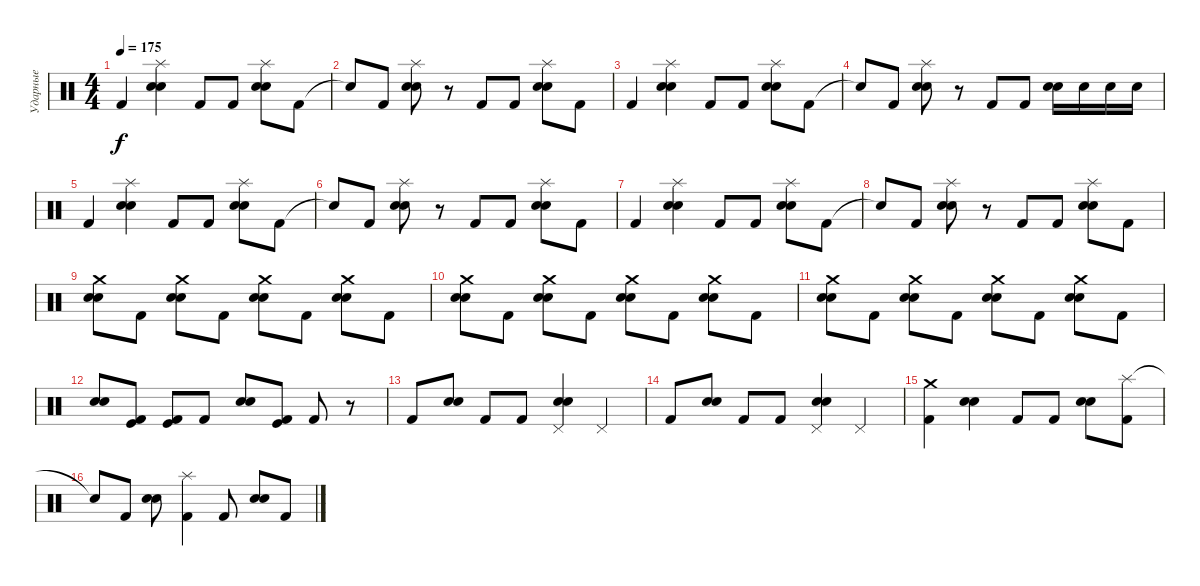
\track ("Ударные" "Ударные") {instrument percussion}
\staff {score}
\articulation defaults
\ts (4 4)
\tempo 175
\clef neutral
\ks c "Kick (hit) 2".4{dy f}
("Splash (hit)" "Electric Snare (hit)" "Snare (hit) 2").4 "Kick (hit) 2".8 "Kick (hit) 2".8 ("Splash (hit)" "Electric Snare (hit)" "Snare (hit) 2").8 "Kick (hit) 2".8 |
"Snare (hit)"{t}.8 "Kick (hit) 2".8 ("Splash (hit)" "Electric Snare (hit)" "Snare (hit) 2").8 r.8 "Kick (hit) 2".8 "Kick (hit) 2".8 ("Splash (hit)" "Electric Snare (hit)" "Snare (hit) 2").8 "Kick (hit) 2".8 |
"Kick (hit) 2".4 ("Splash (hit)" "Electric Snare (hit)" "Snare (hit) 2").4 "Kick (hit) 2".8 "Kick (hit) 2".8 ("Splash (hit)" "Electric Snare (hit)" "Snare (hit) 2").8 "Kick (hit) 2".8 |
"Snare (hit)"{t}.8 "Kick (hit) 2".8 ("Splash (hit)" "Electric Snare (hit)" "Snare (hit) 2").8 r.8 "Kick (hit) 2".8 "Kick (hit) 2".8 ("Electric Snare (hit)" "Snare (hit) 2").16 "Electric Snare (hit)".16 "Electric Snare (hit)".16 "Electric Snare (hit)".16 |
"Kick (hit) 2".4 ("Splash (hit)" "Electric Snare (hit)" "Snare (hit) 2").4 "Kick (hit) 2".8 "Kick (hit) 2".8 ("Splash (hit)" "Electric Snare (hit)" "Snare (hit) 2").8 "Kick (hit) 2".8 |
"Snare (hit)"{t}.8 "Kick (hit) 2".8 ("Splash (hit)" "Electric Snare (hit)" "Snare (hit) 2").8 r.8 "Kick (hit) 2".8 "Kick (hit) 2".8 ("Splash (hit)" "Electric Snare (hit)" "Snare (hit) 2").8 "Kick (hit) 2".8 |
"Kick (hit) 2".4 ("Splash (hit)" "Electric Snare (hit)" "Snare (hit) 2").4 "Kick (hit) 2".8 "Kick (hit) 2".8 ("Splash (hit)" "Electric Snare (hit)" "Snare (hit) 2").8 "Kick (hit) 2".8 |
"Snare (hit)"{t}.8 "Kick (hit) 2".8 ("Splash (hit)" "Electric Snare (hit)" "Snare (hit) 2").8 r.8 "Kick (hit) 2".8 "Kick (hit) 2".8 ("Splash (hit)" "Electric Snare (hit)" "Snare (hit) 2").8 "Kick (hit) 2".8 |
("Crash medium (hit)" "Electric Snare (hit)" "Snare (hit) 2").8 "Kick (hit) 2".8 ("Crash medium (hit)" "Electric Snare (hit)" "Snare (hit) 2").8 "Kick (hit) 2".8 ("Crash medium (hit)" "Electric Snare (hit)" "Snare (hit) 2").8 "Kick (hit) 2".8 ("Crash medium (hit)" "Electric Snare (hit)" "Snare (hit) 2").8 "Kick (hit) 2".8 |
("Crash medium (hit)" "Electric Snare (hit)" "Snare (hit) 2").8 "Kick (hit) 2".8 ("Crash medium (hit)" "Electric Snare (hit)" "Snare (hit) 2").8 "Kick (hit) 2".8 ("Crash medium (hit)" "Electric Snare (hit)" "Snare (hit) 2").8 "Kick (hit) 2".8 ("Crash medium (hit)" "Electric Snare (hit)" "Snare (hit) 2").8 "Kick (hit) 2".8 |
("Crash medium (hit)" "Electric Snare (hit)" "Snare (hit) 2").8 "Kick (hit) 2".8 ("Crash medium (hit)" "Electric Snare (hit)" "Snare (hit) 2").8 "Kick (hit) 2".8 ("Crash medium (hit)" "Electric Snare (hit)" "Snare (hit) 2").8 "Kick (hit) 2".8 ("Crash medium (hit)" "Electric Snare (hit)" "Snare (hit) 2").8 "Kick (hit) 2".8 |
("Electric Snare (hit)" "Snare (hit) 2").8 ("Kick (hit)" "Kick (hit) 2").8 ("Kick (hit)" "Kick (hit) 2").8 "Kick (hit) 2".8 ("Electric Snare (hit)" "Snare (hit) 2").8 ("Kick (hit)" "Kick (hit) 2").8 "Kick (hit) 2".8 r.8 |
"Kick (hit) 2".8 ("Electric Snare (hit)" "Snare (hit) 2").8 "Kick (hit) 2".8 "Kick (hit) 2".8 ("Pedal Hi-Hat (hit)" "Electric Snare (hit)" "Snare (hit) 2").4 "Pedal Hi-Hat (hit)".4 |
"Kick (hit) 2".8 ("Electric Snare (hit)" "Snare (hit) 2").8 "Kick (hit) 2".8 "Kick (hit) 2".8 ("Pedal Hi-Hat (hit)" "Electric Snare (hit)" "Snare (hit) 2").4 "Pedal Hi-Hat (hit)".4 |
("Crash medium (hit)" "Kick (hit) 2").4 ("Electric Snare (hit)" "Snare (hit) 2").4 "Kick (hit) 2".8 "Kick (hit) 2".8 ("Electric Snare (hit)" "Snare (hit) 2").8 ("Splash (hit)" "Kick (hit) 2").8 |
"Snare (hit)"{t}.8 "Kick (hit) 2".8 ("Electric Snare (hit)" "Snare (hit) 2").8 ("Splash (hit)" "Kick (hit) 2").4 "Kick (hit) 2".8 ("Electric Snare (hit)" "Snare (hit) 2").8 "Kick (hit) 2".8
